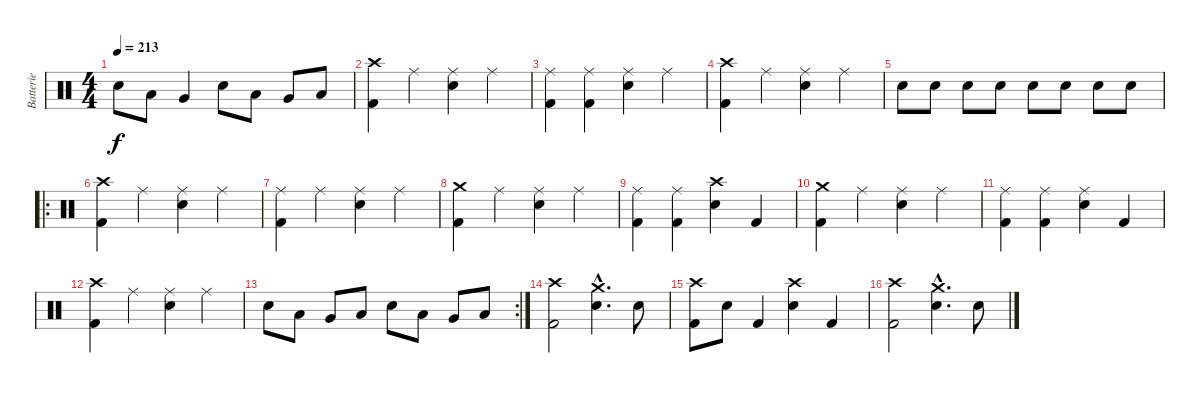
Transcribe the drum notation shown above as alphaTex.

\track ("Batterie" "Batterie") {instrument percussion}
\staff {score}
\articulation defaults
\ts (4 4)
\tempo 213
\clef neutral
\ks c "Electric Snare (hit)".8{dy f} "Low Tom (hit)".8 "Very Low Tom (hit)".4 "Electric Snare (hit)".8 "Low Tom (hit)".8 "Very Low Tom (hit)".8 "Low Floor Tom (hit)".8
|
("Crash high (hit)" "Kick (hit) 2").4 "Ride (middle)".4 ("Electric Snare (hit)" "Ride (middle)").4 "Ride (middle)".4 |
("Kick (hit) 2" "Ride (middle)").4 ("Ride (middle)" "Kick (hit) 2").4 ("Electric Snare (hit)" "Ride (middle)").4 "Ride (middle)".4 |
("Kick (hit) 2" "Crash high (hit)").4 "Ride (middle)".4 ("Electric Snare (hit)" "Ride (middle)").4 "Ride (middle)".4 |
"Electric Snare (hit)".8 "Electric Snare (hit)".8 "Electric Snare (hit)".8 "Electric Snare (hit)".8 "Electric Snare (hit)".8 "Electric Snare (hit)".8 "Electric Snare (hit)".8 "Electric Snare (hit)".8 |
\ro
("Crash high (hit)" "Kick (hit) 2").4 "Ride (middle)".4 ("Ride (middle)" "Electric Snare (hit)").4 "Ride (middle)".4 |
("Ride (middle)" "Kick (hit) 2").4 "Ride (middle)".4 ("Ride (middle)" "Electric Snare (hit)").4 "Ride (middle)".4 |
("Crash medium (hit)" "Kick (hit) 2").4 "Ride (middle)".4 ("Electric Snare (hit)" "Ride (middle)").4 "Ride (middle)".4 |
("Ride (middle)" "Kick (hit) 2").4 ("Ride (middle)" "Kick (hit) 2").4 ("Crash high (hit)" "Electric Snare (hit)").4 "Kick (hit) 2".4 |
("Crash medium (hit)" "Kick (hit) 2").4 "Ride (middle)".4 ("Ride (middle)" "Electric Snare (hit)").4 "Ride (middle)".4 |
("Ride (middle)" "Kick (hit) 2").4 ("Ride (middle)" "Kick (hit) 2").4 ("Ride (middle)" "Electric Snare (hit)").4 "Kick (hit) 2".4 |
("Crash high (hit)" "Kick (hit) 2").4 "Ride (middle)".4 ("Ride (middle)" "Electric Snare (hit)").4 "Ride (middle)".4 |
\rc 2 "Electric Snare (hit)".8 "Low Tom (hit)".8 "Very Low Tom (hit)".8 "Low Floor Tom (hit)".8 "Electric Snare (hit)".8 "Low Tom (hit)".8 "Very Low Tom (hit)".8 "Low Floor Tom (hit)".8
|
("Crash high (hit)" "Kick (hit) 2").2 ("Crash medium (hit)"{hac} "Electric Snare (hit)"{hac}).4{d} "Electric Snare (hit)".8 |
("Crash high (hit)" "Kick (hit) 2").8 "Electric Snare (hit)".8 "Kick (hit) 2".4 ("Crash high (hit)" "Electric Snare (hit)").4 "Kick (hit) 2".4 |
("Crash high (hit)" "Kick (hit) 2").2 ("Crash medium (hit)"{hac} "Electric Snare (hit)"{hac}).4{d} "Electric Snare (hit)".8
